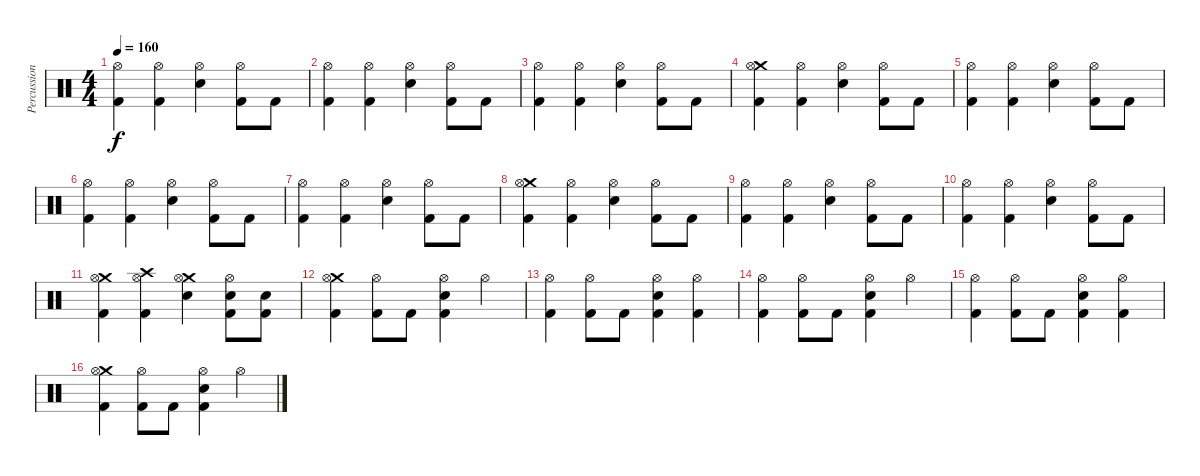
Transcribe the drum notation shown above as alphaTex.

\track ("Percussion" "Percussion") {instrument percussion}
\staff {score}
\articulation defaults
\ts (4 4)
\tempo 160
\clef neutral
\ks c
("Hi-Hat (open)" "Kick (hit) 2").4{dy f} ("Hi-Hat (open)" "Kick (hit) 2").4 ("Hi-Hat (open)" "Electric Snare (hit)").4 ("Hi-Hat (open)" "Kick (hit) 2").8 "Kick (hit) 2".8 |
("Hi-Hat (open)" "Kick (hit) 2").4 ("Hi-Hat (open)" "Kick (hit) 2").4 ("Hi-Hat (open)" "Electric Snare (hit)").4 ("Hi-Hat (open)" "Kick (hit) 2").8 "Kick (hit) 2".8 |
("Hi-Hat (open)" "Kick (hit) 2").4 ("Hi-Hat (open)" "Kick (hit) 2").4 ("Hi-Hat (open)" "Electric Snare (hit)").4 ("Hi-Hat (open)" "Kick (hit) 2").8 "Kick (hit) 2".8 |
("Crash medium (hit)" "Hi-Hat (open)" "Kick (hit) 2").4 ("Hi-Hat (open)" "Kick (hit) 2").4 ("Hi-Hat (open)" "Electric Snare (hit)").4 ("Hi-Hat (open)" "Kick (hit) 2").8 "Kick (hit) 2".8 |
("Hi-Hat (open)" "Kick (hit) 2").4 ("Hi-Hat (open)" "Kick (hit) 2").4 ("Hi-Hat (open)" "Electric Snare (hit)").4 ("Hi-Hat (open)" "Kick (hit) 2").8 "Kick (hit) 2".8 |
("Hi-Hat (open)" "Kick (hit) 2").4 ("Hi-Hat (open)" "Kick (hit) 2").4 ("Hi-Hat (open)" "Electric Snare (hit)").4 ("Hi-Hat (open)" "Kick (hit) 2").8 "Kick (hit) 2".8 |
("Hi-Hat (open)" "Kick (hit) 2").4 ("Hi-Hat (open)" "Kick (hit) 2").4 ("Hi-Hat (open)" "Electric Snare (hit)").4 ("Hi-Hat (open)" "Kick (hit) 2").8 "Kick (hit) 2".8 |
("Crash medium (hit)" "Hi-Hat (open)" "Kick (hit) 2").4 ("Hi-Hat (open)" "Kick (hit) 2").4 ("Hi-Hat (open)" "Electric Snare (hit)").4 ("Hi-Hat (open)" "Kick (hit) 2").8 "Kick (hit) 2".8 |
("Hi-Hat (open)" "Kick (hit) 2").4 ("Hi-Hat (open)" "Kick (hit) 2").4 ("Hi-Hat (open)" "Electric Snare (hit)").4 ("Hi-Hat (open)" "Kick (hit) 2").8 "Kick (hit) 2".8 |
("Hi-Hat (open)" "Kick (hit) 2").4 ("Hi-Hat (open)" "Kick (hit) 2").4 ("Hi-Hat (open)" "Electric Snare (hit)").4 ("Hi-Hat (open)" "Kick (hit) 2").8 "Kick (hit) 2".8 |
("Crash medium (hit)" "Hi-Hat (open)" "Kick (hit) 2").4 ("Crash high (hit)" "Hi-Hat (open)" "Kick (hit) 2").4 ("Crash medium (hit)" "Hi-Hat (open)" "Electric Snare (hit)").4 ("Hi-Hat (open)" "Electric Snare (hit)" "Kick (hit) 2").8 ("Electric Snare (hit)" "Kick (hit) 2").8 |
("Crash medium (hit)" "Hi-Hat (open)" "Kick (hit) 2").4 ("Hi-Hat (open)" "Kick (hit) 2").8 "Kick (hit) 2".8 ("Hi-Hat (open)" "Electric Snare (hit)" "Kick (hit) 2").4 "Hi-Hat (open)".4 |
("Hi-Hat (open)" "Kick (hit) 2").4 ("Hi-Hat (open)" "Kick (hit) 2").8 "Kick (hit) 2".8 ("Hi-Hat (open)" "Electric Snare (hit)" "Kick (hit) 2").4 ("Hi-Hat (open)" "Kick (hit) 2").4 |
("Hi-Hat (open)" "Kick (hit) 2").4 ("Hi-Hat (open)" "Kick (hit) 2").8 "Kick (hit) 2".8 ("Hi-Hat (open)" "Electric Snare (hit)" "Kick (hit) 2").4 "Hi-Hat (open)".4 |
("Hi-Hat (open)" "Kick (hit) 2").4 ("Hi-Hat (open)" "Kick (hit) 2").8 "Kick (hit) 2".8 ("Hi-Hat (open)" "Electric Snare (hit)" "Kick (hit) 2").4 ("Hi-Hat (open)" "Kick (hit) 2").4 |
("Crash medium (hit)" "Hi-Hat (open)" "Kick (hit) 2").4 ("Hi-Hat (open)" "Kick (hit) 2").8 "Kick (hit) 2".8 ("Hi-Hat (open)" "Electric Snare (hit)" "Kick (hit) 2").4 "Hi-Hat (open)".4
